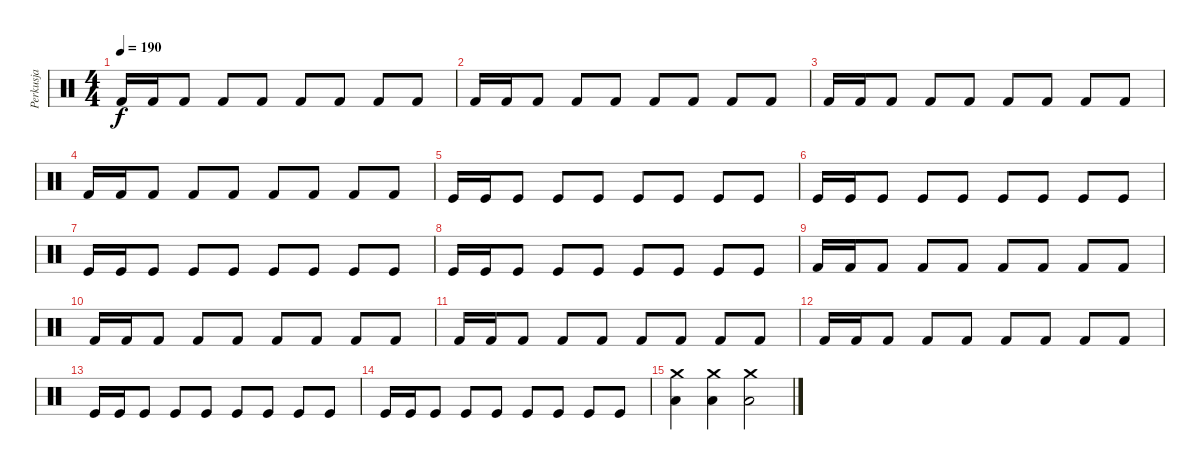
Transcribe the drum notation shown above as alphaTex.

\track ("Perkusja" "Perkusja") {instrument percussion}
\staff {score}
\articulation defaults
\ts (4 4)
\tempo 190
\clef neutral
\ks c "Kick (hit) 2".16{dy f} "Kick (hit) 2".16 "Kick (hit) 2".8 "Kick (hit) 2".8 "Kick (hit) 2".8 "Kick (hit) 2".8 "Kick (hit) 2".8 "Kick (hit) 2".8 "Kick (hit) 2".8
|
"Kick (hit) 2".16 "Kick (hit) 2".16 "Kick (hit) 2".8 "Kick (hit) 2".8 "Kick (hit) 2".8 "Kick (hit) 2".8 "Kick (hit) 2".8 "Kick (hit) 2".8 "Kick (hit) 2".8 |
"Kick (hit) 2".16 "Kick (hit) 2".16 "Kick (hit) 2".8 "Kick (hit) 2".8 "Kick (hit) 2".8 "Kick (hit) 2".8 "Kick (hit) 2".8 "Kick (hit) 2".8 "Kick (hit) 2".8 |
"Kick (hit) 2".16 "Kick (hit) 2".16 "Kick (hit) 2".8 "Kick (hit) 2".8 "Kick (hit) 2".8 "Kick (hit) 2".8 "Kick (hit) 2".8 "Kick (hit) 2".8 "Kick (hit) 2".8 |
"Kick (hit)".16 "Kick (hit)".16 "Kick (hit)".8 "Kick (hit)".8 "Kick (hit)".8 "Kick (hit)".8 "Kick (hit)".8 "Kick (hit)".8 "Kick (hit)".8 |
"Kick (hit)".16 "Kick (hit)".16 "Kick (hit)".8 "Kick (hit)".8 "Kick (hit)".8 "Kick (hit)".8 "Kick (hit)".8 "Kick (hit)".8 "Kick (hit)".8 |
"Kick (hit)".16{volume 12} "Kick (hit)".16 "Kick (hit)".8 "Kick (hit)".8 "Kick (hit)".8 "Kick (hit)".8 "Kick (hit)".8 "Kick (hit)".8 "Kick (hit)".8 |
"Kick (hit)".16 "Kick (hit)".16 "Kick (hit)".8 "Kick (hit)".8 "Kick (hit)".8 "Kick (hit)".8 "Kick (hit)".8 "Kick (hit)".8 "Kick (hit)".8 |
"Kick (hit) 2".16 "Kick (hit) 2".16 "Kick (hit) 2".8 "Kick (hit) 2".8 "Kick (hit) 2".8 "Kick (hit) 2".8 "Kick (hit) 2".8 "Kick (hit) 2".8 "Kick (hit) 2".8 |
"Kick (hit) 2".16 "Kick (hit) 2".16 "Kick (hit) 2".8 "Kick (hit) 2".8 "Kick (hit) 2".8 "Kick (hit) 2".8 "Kick (hit) 2".8 "Kick (hit) 2".8 "Kick (hit) 2".8 |
"Kick (hit) 2".16 "Kick (hit) 2".16 "Kick (hit) 2".8 "Kick (hit) 2".8 "Kick (hit) 2".8 "Kick (hit) 2".8 "Kick (hit) 2".8 "Kick (hit) 2".8 "Kick (hit) 2".8 |
"Kick (hit) 2".16 "Kick (hit) 2".16 "Kick (hit) 2".8 "Kick (hit) 2".8 "Kick (hit) 2".8 "Kick (hit) 2".8 "Kick (hit) 2".8 "Kick (hit) 2".8 "Kick (hit) 2".8 |
"Kick (hit)".16 "Kick (hit)".16 "Kick (hit)".8 "Kick (hit)".8 "Kick (hit)".8 "Kick (hit)".8 "Kick (hit)".8 "Kick (hit)".8 "Kick (hit)".8 |
"Kick (hit)".16 "Kick (hit)".16 "Kick (hit)".8 "Kick (hit)".8 "Kick (hit)".8 "Kick (hit)".8 "Kick (hit)".8 "Kick (hit)".8 "Kick (hit)".8 |
("Crash medium (hit)" "Low Tom (hit)").4 ("Crash medium (hit)" "Low Tom (hit)").4 ("Crash medium (hit)" "Low Tom (hit)").2
